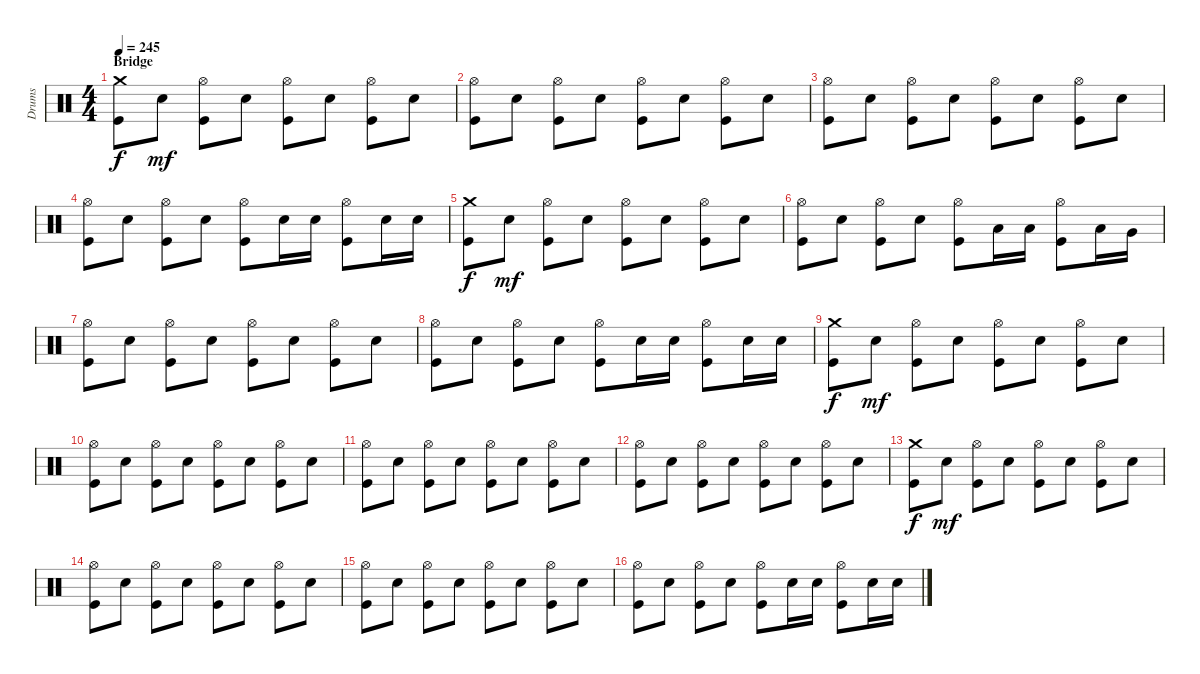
\track ("Drums" "Drums") {instrument percussion}
\staff {score}
\articulation defaults
\ts (4 4)
\section ("" "Bridge")
\tempo 245
\clef neutral
\ks c
("Crash medium (hit)" "Kick (hit)").8{dy f} "Snare (hit) 2".8{dy mf} ("Hi-Hat (open)" "Kick (hit)").8 "Snare (hit) 2".8 ("Hi-Hat (open)" "Kick (hit)").8 "Snare (hit) 2".8 ("Hi-Hat (open)" "Kick (hit)").8 "Snare (hit) 2".8 |
("Hi-Hat (open)" "Kick (hit)").8 "Snare (hit) 2".8 ("Hi-Hat (open)" "Kick (hit)").8 "Snare (hit) 2".8 ("Hi-Hat (open)" "Kick (hit)").8 "Snare (hit) 2".8 ("Hi-Hat (open)" "Kick (hit)").8 "Snare (hit) 2".8 |
("Hi-Hat (open)" "Kick (hit)").8 "Snare (hit) 2".8 ("Hi-Hat (open)" "Kick (hit)").8 "Snare (hit) 2".8 ("Hi-Hat (open)" "Kick (hit)").8 "Snare (hit) 2".8 ("Hi-Hat (open)" "Kick (hit)").8 "Snare (hit) 2".8 |
("Hi-Hat (open)" "Kick (hit)").8 "Snare (hit) 2".8 ("Hi-Hat (open)" "Kick (hit)").8 "Snare (hit) 2".8 ("Hi-Hat (open)" "Kick (hit)").8 "Snare (hit) 2".16 "Snare (hit) 2".16 ("Hi-Hat (open)" "Kick (hit)").8 "Snare (hit) 2".16 "Snare (hit) 2".16 |
("Crash medium (hit)" "Kick (hit)").8{dy f} "Snare (hit) 2".8{dy mf} ("Hi-Hat (open)" "Kick (hit)").8 "Snare (hit) 2".8 ("Hi-Hat (open)" "Kick (hit)").8 "Snare (hit) 2".8 ("Hi-Hat (open)" "Kick (hit)").8 "Snare (hit) 2".8 |
("Hi-Hat (open)" "Kick (hit)").8 "Snare (hit) 2".8 ("Hi-Hat (open)" "Kick (hit)").8 "Snare (hit) 2".8 ("Hi-Hat (open)" "Kick (hit)").8 "Low Tom (hit)".16 "Low Tom (hit)".16 ("Hi-Hat (open)" "Kick (hit)").8 "Low Tom (hit)".16 "Very Low Tom (hit)".16 |
("Hi-Hat (open)" "Kick (hit)").8 "Snare (hit) 2".8 ("Hi-Hat (open)" "Kick (hit)").8 "Snare (hit) 2".8 ("Hi-Hat (open)" "Kick (hit)").8 "Snare (hit) 2".8 ("Hi-Hat (open)" "Kick (hit)").8 "Snare (hit) 2".8 |
("Hi-Hat (open)" "Kick (hit)").8 "Snare (hit) 2".8 ("Hi-Hat (open)" "Kick (hit)").8 "Snare (hit) 2".8 ("Hi-Hat (open)" "Kick (hit)").8 "Snare (hit) 2".16 "Snare (hit) 2".16 ("Hi-Hat (open)" "Kick (hit)").8 "Snare (hit) 2".16 "Snare (hit) 2".16 |
("Crash medium (hit)" "Kick (hit)").8{dy f} "Snare (hit) 2".8{dy mf} ("Hi-Hat (open)" "Kick (hit)").8 "Snare (hit) 2".8 ("Hi-Hat (open)" "Kick (hit)").8 "Snare (hit) 2".8 ("Hi-Hat (open)" "Kick (hit)").8 "Snare (hit) 2".8 |
("Hi-Hat (open)" "Kick (hit)").8 "Snare (hit) 2".8 ("Hi-Hat (open)" "Kick (hit)").8 "Snare (hit) 2".8 ("Hi-Hat (open)" "Kick (hit)").8 "Snare (hit) 2".8 ("Hi-Hat (open)" "Kick (hit)").8 "Snare (hit) 2".8 |
("Hi-Hat (open)" "Kick (hit)").8 "Snare (hit) 2".8 ("Hi-Hat (open)" "Kick (hit)").8 "Snare (hit) 2".8 ("Hi-Hat (open)" "Kick (hit)").8 "Snare (hit) 2".8 ("Hi-Hat (open)" "Kick (hit)").8 "Snare (hit) 2".8 |
("Hi-Hat (open)" "Kick (hit)").8 "Snare (hit) 2".8 ("Hi-Hat (open)" "Kick (hit)").8 "Snare (hit) 2".8 ("Hi-Hat (open)" "Kick (hit)").8 "Snare (hit) 2".8 ("Hi-Hat (open)" "Kick (hit)").8 "Snare (hit) 2".8 |
("Crash medium (hit)" "Kick (hit)").8{dy f} "Snare (hit) 2".8{dy mf} ("Hi-Hat (open)" "Kick (hit)").8 "Snare (hit) 2".8 ("Hi-Hat (open)" "Kick (hit)").8 "Snare (hit) 2".8 ("Hi-Hat (open)" "Kick (hit)").8 "Snare (hit) 2".8 |
("Hi-Hat (open)" "Kick (hit)").8 "Snare (hit) 2".8 ("Hi-Hat (open)" "Kick (hit)").8 "Snare (hit) 2".8 ("Hi-Hat (open)" "Kick (hit)").8 "Snare (hit) 2".8 ("Hi-Hat (open)" "Kick (hit)").8 "Snare (hit) 2".8 |
("Hi-Hat (open)" "Kick (hit)").8 "Snare (hit) 2".8 ("Hi-Hat (open)" "Kick (hit)").8 "Snare (hit) 2".8 ("Hi-Hat (open)" "Kick (hit)").8 "Snare (hit) 2".8 ("Hi-Hat (open)" "Kick (hit)").8 "Snare (hit) 2".8 |
("Hi-Hat (open)" "Kick (hit)").8 "Snare (hit) 2".8 ("Hi-Hat (open)" "Kick (hit)").8 "Snare (hit) 2".8 ("Hi-Hat (open)" "Kick (hit)").8 "Snare (hit) 2".16 "Snare (hit) 2".16 ("Hi-Hat (open)" "Kick (hit)").8 "Snare (hit) 2".16 "Snare (hit) 2".16
